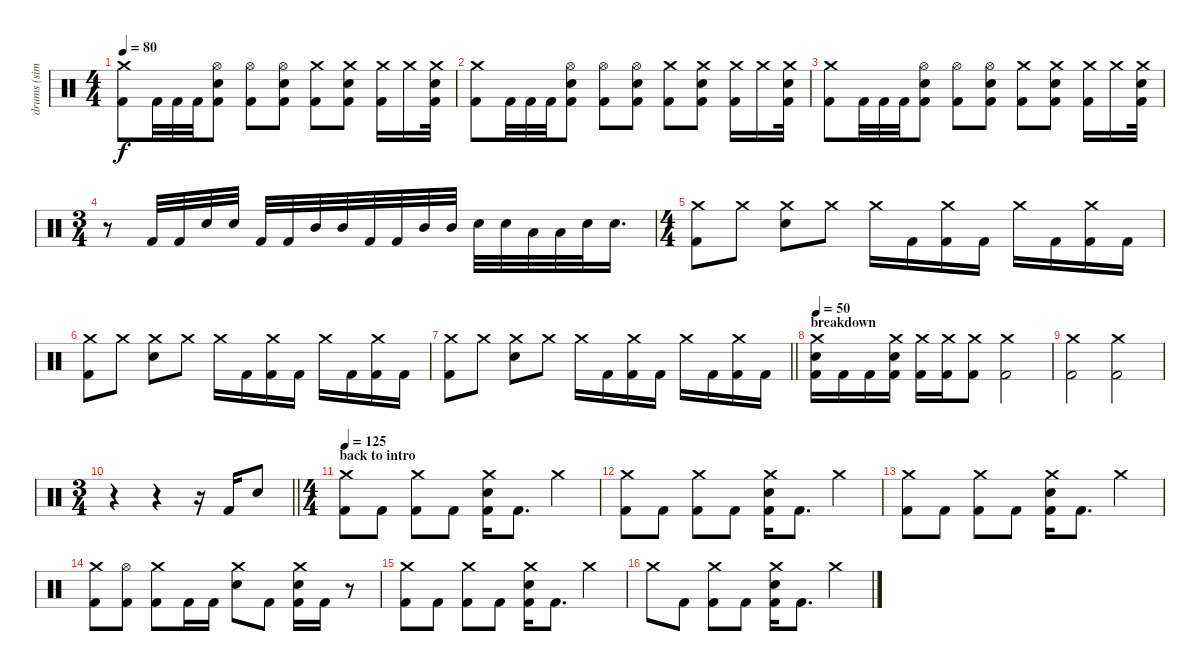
\track ("drums (simple)" "drums (sim") {instrument percussion}
\staff {score}
\articulation defaults
\ts (4 4)
\tempo 80
\clef neutral
\ks c
("Crash medium (hit)" "Kick (hit) 2").8{dy f} "Kick (hit) 2".32 "Kick (hit) 2".32 "Kick (hit) 2".32 ("Hi-Hat (open)" "Electric Snare (hit)" "Kick (hit) 2").8 ("Hi-Hat (open)" "Kick (hit) 2").8 ("Hi-Hat (open)" "Electric Snare (hit)" "Kick (hit) 2").8 ("Crash medium (hit)" "Kick (hit) 2").8 ("Crash medium (hit)" "Electric Snare (hit)" "Kick (hit) 2").8 ("Crash medium (hit)" "Kick (hit) 2").16 "Crash medium (hit)".16 ("Crash medium (hit)" "Electric Snare (hit)" "Kick (hit) 2").32 |
("Crash medium (hit)" "Kick (hit) 2").8 "Kick (hit) 2".32 "Kick (hit) 2".32 "Kick (hit) 2".32 ("Hi-Hat (open)" "Electric Snare (hit)" "Kick (hit) 2").8 ("Hi-Hat (open)" "Kick (hit) 2").8 ("Hi-Hat (open)" "Electric Snare (hit)" "Kick (hit) 2").8 ("Crash medium (hit)" "Kick (hit) 2").8 ("Crash medium (hit)" "Electric Snare (hit)" "Kick (hit) 2").8 ("Crash medium (hit)" "Kick (hit) 2").16 "Crash medium (hit)".16 ("Crash medium (hit)" "Electric Snare (hit)" "Kick (hit) 2").32 |
("Crash medium (hit)" "Kick (hit) 2").8 "Kick (hit) 2".32 "Kick (hit) 2".32 "Kick (hit) 2".32 ("Hi-Hat (open)" "Electric Snare (hit)" "Kick (hit) 2").8 ("Hi-Hat (open)" "Kick (hit) 2").8 ("Hi-Hat (open)" "Electric Snare (hit)" "Kick (hit) 2").8 ("Crash medium (hit)" "Kick (hit) 2").8 ("Crash medium (hit)" "Electric Snare (hit)" "Kick (hit) 2").8 ("Crash medium (hit)" "Kick (hit) 2").16 "Crash medium (hit)".16 ("Crash medium (hit)" "Electric Snare (hit)" "Kick (hit) 2").32 |
\ts (3 4)
r.8 "Kick (hit) 2".32 "Kick (hit) 2".32 "Electric Snare (hit)".32 "Electric Snare (hit)".32 "Kick (hit) 2".32 "Kick (hit) 2".32 "Mid Tom (hit)".32 "Mid Tom (hit)".32 "Kick (hit) 2".32 "Kick (hit) 2".32 "Mid Tom (hit)".32 "Mid Tom (hit)".32 "Electric Snare (hit)".32 "Electric Snare (hit)".32 "Low Tom (hit)".32 "Low Tom (hit)".32 "Electric Snare (hit)".32 "Electric Snare (hit)".16{d} |
\ts (4 4)
("Crash medium (hit)" "Kick (hit) 2").8 "Crash medium (hit)".8 ("Crash medium (hit)" "Electric Snare (hit)").8 "Crash medium (hit)".8 "Crash medium (hit)".16 "Kick (hit) 2".16 ("Crash medium (hit)" "Kick (hit) 2").16 "Kick (hit) 2".16 "Crash medium (hit)".16 "Kick (hit) 2".16 ("Crash medium (hit)" "Kick (hit) 2").16 "Kick (hit) 2".16 |
("Crash medium (hit)" "Kick (hit) 2").8 "Crash medium (hit)".8 ("Crash medium (hit)" "Electric Snare (hit)").8 "Crash medium (hit)".8 "Crash medium (hit)".16 "Kick (hit) 2".16 ("Crash medium (hit)" "Kick (hit) 2").16 "Kick (hit) 2".16 "Crash medium (hit)".16 "Kick (hit) 2".16 ("Crash medium (hit)" "Kick (hit) 2").16 "Kick (hit) 2".16 |
\barLineRight lightlight
("Crash medium (hit)" "Kick (hit) 2").8 "Crash medium (hit)".8 ("Crash medium (hit)" "Electric Snare (hit)").8 "Crash medium (hit)".8 "Crash medium (hit)".16 "Kick (hit) 2".16 ("Crash medium (hit)" "Kick (hit) 2").16 "Kick (hit) 2".16 "Crash medium (hit)".16 "Kick (hit) 2".16 ("Crash medium (hit)" "Kick (hit) 2").16 "Kick (hit) 2".16 |
\section ("" "breakdown")
\tempo 50
("Crash medium (hit)" "Electric Snare (hit)" "Kick (hit) 2").16 "Kick (hit) 2".16 "Kick (hit) 2".16 ("Crash medium (hit)" "Electric Snare (hit)" "Kick (hit) 2").16 ("Crash medium (hit)" "Kick (hit) 2").16 ("Crash medium (hit)" "Kick (hit) 2").16 ("Crash medium (hit)" "Kick (hit) 2").8 ("Crash medium (hit)" "Kick (hit) 2").2 |
("Crash medium (hit)" "Kick (hit) 2").2 ("Crash medium (hit)" "Kick (hit) 2").2 |
\ts (3 4)
\barLineRight lightlight
r.4 r.4 r.16 "Kick (hit) 2".16 "Electric Snare (hit)".8 |
\ts (4 4)
\section ("" "back to intro ")
\tempo 125
("Crash medium (hit)" "Kick (hit) 2").8 "Kick (hit) 2".8 ("Crash medium (hit)" "Kick (hit) 2").8 "Kick (hit) 2".8 ("Crash medium (hit)" "Electric Snare (hit)" "Kick (hit) 2").16 "Kick (hit) 2".8{d} "Crash medium (hit)".4 |
("Crash medium (hit)" "Kick (hit) 2").8 "Kick (hit) 2".8 ("Crash medium (hit)" "Kick (hit) 2").8 "Kick (hit) 2".8 ("Crash medium (hit)" "Electric Snare (hit)" "Kick (hit) 2").16 "Kick (hit) 2".8{d} "Crash medium (hit)".4 |
("Crash medium (hit)" "Kick (hit) 2").8 "Kick (hit) 2".8 ("Crash medium (hit)" "Kick (hit) 2").8 "Kick (hit) 2".8 ("Crash medium (hit)" "Electric Snare (hit)" "Kick (hit) 2").16 "Kick (hit) 2".8{d} "Crash medium (hit)".4 |
("Crash medium (hit)" "Kick (hit) 2").8 ("Hi-Hat (open)" "Kick (hit) 2").8 ("Crash medium (hit)" "Kick (hit) 2").8 "Kick (hit) 2".16 "Kick (hit) 2".16 ("Crash medium (hit)" "Electric Snare (hit)").8 "Kick (hit) 2".8 ("Crash medium (hit)" "Electric Snare (hit)" "Kick (hit) 2").16 "Kick (hit) 2".16 r.8 |
("Crash medium (hit)" "Kick (hit) 2").8 "Kick (hit) 2".8 ("Crash medium (hit)" "Kick (hit) 2").8 "Kick (hit) 2".8 ("Crash medium (hit)" "Electric Snare (hit)" "Kick (hit) 2").16 "Kick (hit) 2".8{d} "Crash medium (hit)".4 |
"Crash medium (hit)".8 "Kick (hit) 2".8 ("Crash medium (hit)" "Kick (hit) 2").8 "Kick (hit) 2".8 ("Crash medium (hit)" "Electric Snare (hit)" "Kick (hit) 2").16 "Kick (hit) 2".8{d} "Crash medium (hit)".4
